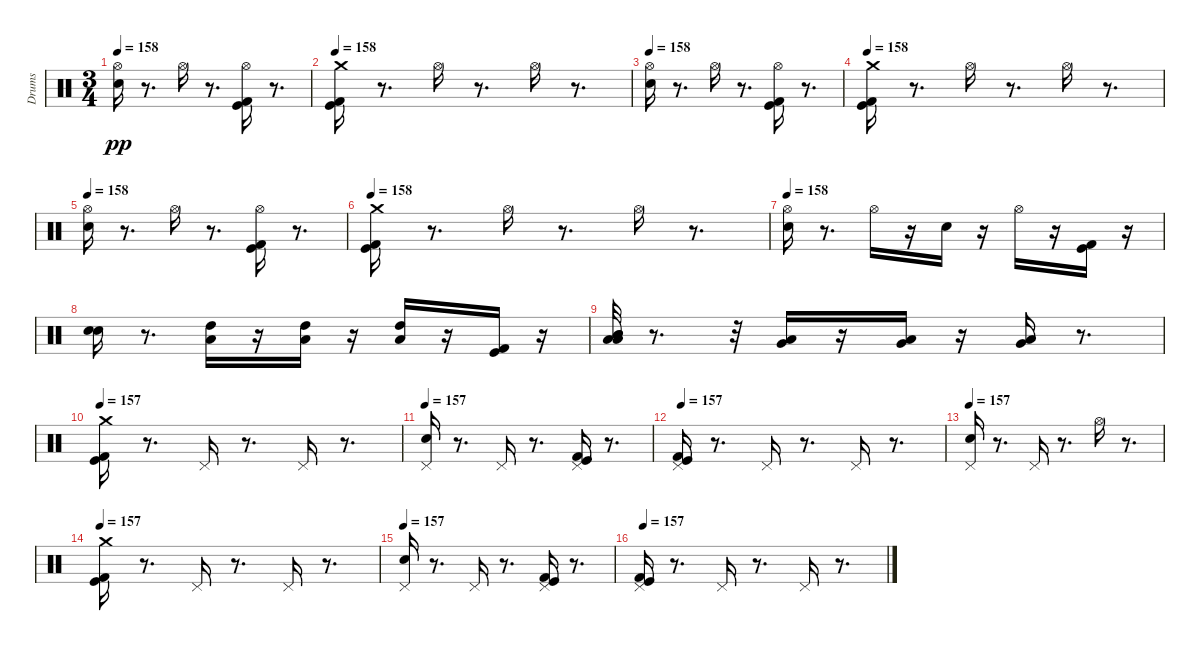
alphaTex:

\track ("Drums" "Drums") {instrument percussion}
\staff {score}
\articulation defaults
\ts (3 4)
\tempo 158
\clef neutral
\ks c
("Hi-Hat (open)" "Snare (hit) 2").16{dy pp} r.8{d} "Hi-Hat (open)".16 r.8{d} ("Kick (hit) 2" "Kick (hit)" "Hi-Hat (open)").16 r.8{d} |
\tempo 158
("Crash medium (hit)" "Kick (hit) 2" "Kick (hit)").16 r.8{d} "Hi-Hat (open)".16 r.8{d} "Hi-Hat (open)".16 r.8{d} |
\tempo 158
("Hi-Hat (open)" "Snare (hit) 2").16 r.8{d} "Hi-Hat (open)".16 r.8{d} ("Kick (hit)" "Kick (hit) 2" "Hi-Hat (open)").16 r.8{d} |
\tempo 158
("Crash medium (hit)" "Kick (hit) 2" "Kick (hit)").16 r.8{d} "Hi-Hat (open)".16 r.8{d} "Hi-Hat (open)".16 r.8{d} |
\tempo 158
("Hi-Hat (open)" "Snare (hit) 2").16 r.8{d} "Hi-Hat (open)".16 r.8{d} ("Kick (hit)" "Kick (hit) 2" "Hi-Hat (open)").16 r.8{d} |
\tempo 158
("Crash medium (hit)" "Kick (hit) 2" "Kick (hit)").16 r.8{d} "Hi-Hat (open)".16 r.8{d} "Hi-Hat (open)".16 r.8{d} |
\tempo 158
("Snare (hit) 2" "Hi-Hat (open)").16 r.8{d} "Hi-Hat (open)".16 r.16 "Snare (hit) 2".16 r.16 "Hi-Hat (open)".16 r.16 ("Kick (hit) 2" "Kick (hit)").16 r.16 |
("Snare (hit) 2" "Snare (hit) 2").16 r.8{d} ("Low Tom (hit)" "High Tom (hit)").16 r.16 ("Low Tom (hit)" "High Tom (hit)").16 r.16 ("Low Tom (hit)" "High Tom (hit)").16 r.16 ("Kick (hit) 2" "Kick (hit)").16 r.16 |
("Mid Tom (hit)" "Low Tom (hit)" "Mid Tom (hit)" "Low Tom (hit)").32 r.8{d} r.32 ("Very Low Tom (hit)" "Low Tom (hit)").16 r.16 ("Very Low Tom (hit)" "Low Tom (hit)").16 r.16 ("Very Low Tom (hit)" "Low Tom (hit)").16 r.8{d} |
\tempo 157
("Crash medium (hit)" "Kick (hit) 2" "Kick (hit)").16 r.8{d} "Pedal Hi-Hat (hit)".16 r.8{d} "Pedal Hi-Hat (hit)".16 r.8{d} |
\tempo 157
("Pedal Hi-Hat (hit)" "Snare (hit) 2").16 r.8{d} "Pedal Hi-Hat (hit)".16 r.8{d} ("Pedal Hi-Hat (hit)" "Kick (hit) 2" "Kick (hit)").16 r.8{d} |
\tempo 157
("Pedal Hi-Hat (hit)" "Kick (hit) 2" "Kick (hit)").16 r.8{d} "Pedal Hi-Hat (hit)".16 r.8{d} "Pedal Hi-Hat (hit)".16 r.8{d} |
\tempo 157
("Pedal Hi-Hat (hit)" "Snare (hit) 2").16 r.8{d} "Pedal Hi-Hat (hit)".16 r.8{d} "Hi-Hat (open)".16 r.8{d} |
\tempo 157
("Crash medium (hit)" "Kick (hit) 2" "Kick (hit)").16 r.8{d} "Pedal Hi-Hat (hit)".16 r.8{d} "Pedal Hi-Hat (hit)".16 r.8{d} |
\tempo 157
("Pedal Hi-Hat (hit)" "Snare (hit) 2").16 r.8{d} "Pedal Hi-Hat (hit)".16 r.8{d} ("Pedal Hi-Hat (hit)" "Kick (hit) 2" "Kick (hit)").16 r.8{d} |
\tempo 157
("Pedal Hi-Hat (hit)" "Kick (hit) 2" "Kick (hit)").16 r.8{d} "Pedal Hi-Hat (hit)".16 r.8{d} "Pedal Hi-Hat (hit)".16 r.8{d}
